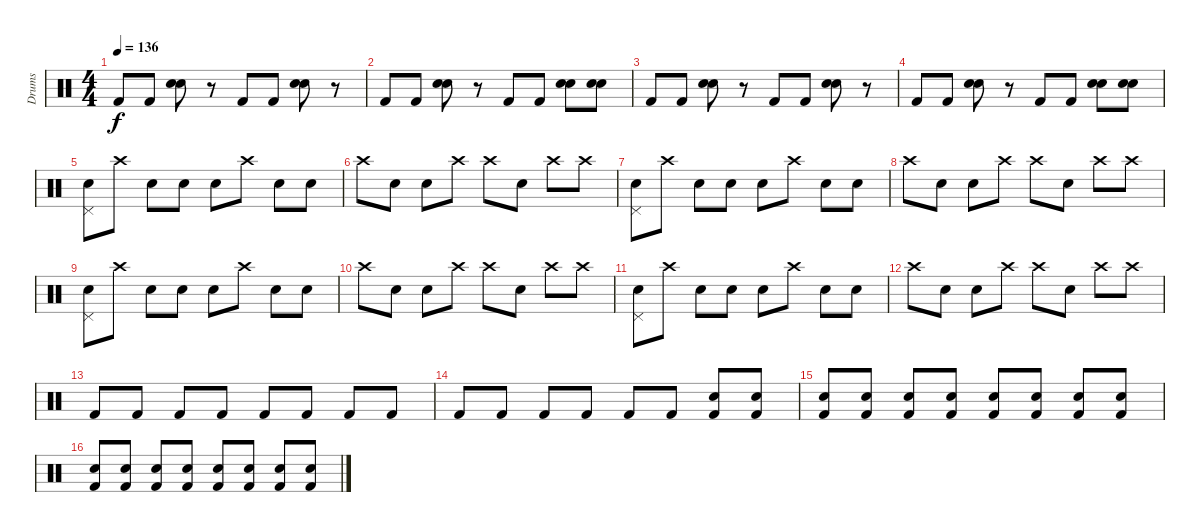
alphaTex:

\track ("Drums" "Drums") {instrument percussion}
\staff {score}
\articulation defaults
\ts (4 4)
\tempo 136
\clef neutral
\ks c "Kick (hit) 2".8{dy f} "Kick (hit) 2".8
("Snare (hit) 2" "Electric Snare (hit)").8 r.8 "Kick (hit) 2".8 "Kick (hit) 2".8 ("Snare (hit) 2" "Electric Snare (hit)").8 r.8 |
"Kick (hit) 2".8 "Kick (hit) 2".8 ("Snare (hit) 2" "Electric Snare (hit)").8 r.8 "Kick (hit) 2".8 "Kick (hit) 2".8 ("Snare (hit) 2" "Electric Snare (hit)").8 ("Snare (hit) 2" "Electric Snare (hit)").8 |
"Kick (hit) 2".8 "Kick (hit) 2".8 ("Snare (hit) 2" "Electric Snare (hit)").8 r.8 "Kick (hit) 2".8 "Kick (hit) 2".8 ("Snare (hit) 2" "Electric Snare (hit)").8 r.8 |
"Kick (hit) 2".8 "Kick (hit) 2".8 ("Snare (hit) 2" "Electric Snare (hit)").8 r.8 "Kick (hit) 2".8 "Kick (hit) 2".8 ("Snare (hit) 2" "Electric Snare (hit)").8 ("Snare (hit) 2" "Electric Snare (hit)").8 |
("Snare (hit) 2" "Pedal Hi-Hat (hit)").8 "Crash high (hit)".8 "Electric Snare (hit)".8 "Snare (hit) 2".8 "Snare (hit) 2".8 "Crash high (hit)".8 "Electric Snare (hit)".8 "Snare (hit) 2".8 |
"Crash high (hit)".8 "Electric Snare (hit)".8 "Snare (hit) 2".8 "Crash high (hit)".8 "Crash high (hit)".8 "Snare (hit) 2".8 "Crash high (hit)".8 "Crash high (hit)".8 |
("Snare (hit) 2" "Pedal Hi-Hat (hit)").8 "Crash high (hit)".8 "Electric Snare (hit)".8 "Snare (hit) 2".8 "Snare (hit) 2".8 "Crash high (hit)".8 "Electric Snare (hit)".8 "Snare (hit) 2".8 |
"Crash high (hit)".8 "Electric Snare (hit)".8 "Snare (hit) 2".8 "Crash high (hit)".8 "Crash high (hit)".8 "Snare (hit) 2".8 "Crash high (hit)".8 "Crash high (hit)".8 |
("Snare (hit) 2" "Pedal Hi-Hat (hit)").8 "Crash high (hit)".8 "Electric Snare (hit)".8 "Snare (hit) 2".8 "Snare (hit) 2".8 "Crash high (hit)".8 "Electric Snare (hit)".8 "Snare (hit) 2".8 |
"Crash high (hit)".8 "Electric Snare (hit)".8 "Snare (hit) 2".8 "Crash high (hit)".8 "Crash high (hit)".8 "Snare (hit) 2".8 "Crash high (hit)".8 "Crash high (hit)".8 |
("Snare (hit) 2" "Pedal Hi-Hat (hit)").8 "Crash high (hit)".8 "Electric Snare (hit)".8 "Snare (hit) 2".8 "Snare (hit) 2".8 "Crash high (hit)".8 "Electric Snare (hit)".8 "Snare (hit) 2".8 |
"Crash high (hit)".8 "Electric Snare (hit)".8 "Snare (hit) 2".8 "Crash high (hit)".8 "Crash high (hit)".8 "Snare (hit) 2".8 "Crash high (hit)".8 "Crash high (hit)".8 |
"Kick (hit) 2".8{volume 7} "Kick (hit) 2".8 "Kick (hit) 2".8 "Kick (hit) 2".8 "Kick (hit) 2".8 "Kick (hit) 2".8 "Kick (hit) 2".8 "Kick (hit) 2".8 |
"Kick (hit) 2".8{volume 7} "Kick (hit) 2".8 "Kick (hit) 2".8 "Kick (hit) 2".8 "Kick (hit) 2".8 "Kick (hit) 2".8 ("Snare (hit) 2" "Kick (hit) 2").8 ("Snare (hit) 2" "Kick (hit) 2").8 |
("Snare (hit) 2" "Kick (hit) 2").8{volume 13} ("Snare (hit) 2" "Kick (hit) 2").8 ("Snare (hit) 2" "Kick (hit) 2").8 ("Snare (hit) 2" "Kick (hit) 2").8 ("Snare (hit) 2" "Kick (hit) 2").8 ("Snare (hit) 2" "Kick (hit) 2").8 ("Snare (hit) 2" "Kick (hit) 2").8 ("Snare (hit) 2" "Kick (hit) 2").8 |
("Snare (hit) 2" "Kick (hit) 2").8{volume 13} ("Snare (hit) 2" "Kick (hit) 2").8 ("Snare (hit) 2" "Kick (hit) 2").8 ("Snare (hit) 2" "Kick (hit) 2").8 ("Snare (hit) 2" "Kick (hit) 2").8 ("Snare (hit) 2" "Kick (hit) 2").8 ("Snare (hit) 2" "Kick (hit) 2").8 ("Snare (hit) 2" "Kick (hit) 2").8
